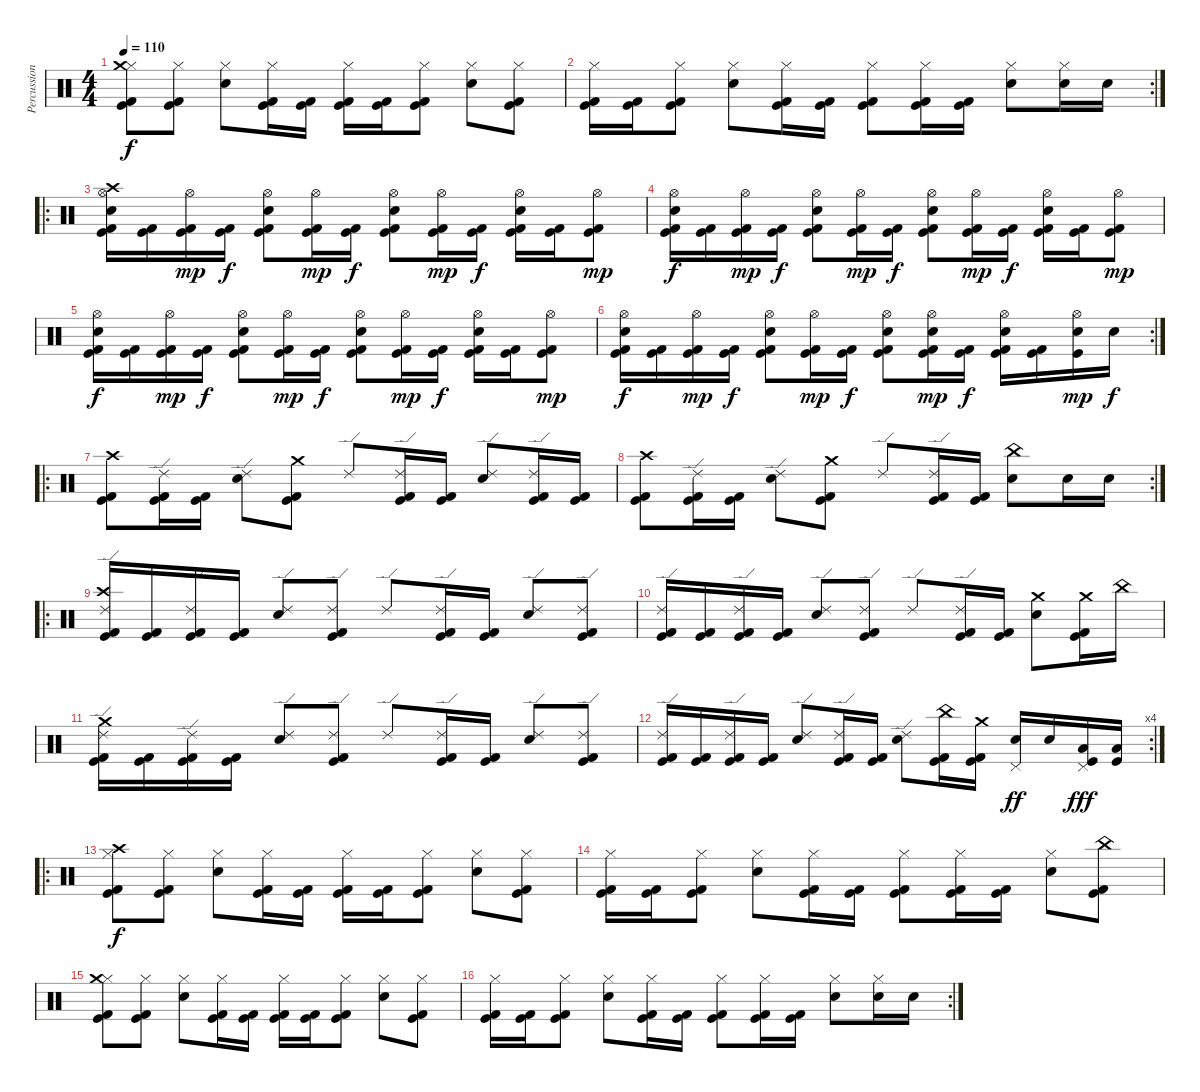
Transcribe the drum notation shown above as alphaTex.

\track ("Percussion" "Percussion") {instrument percussion}
\staff {score}
\articulation defaults
\ts (4 4)
\tempo 110
\clef neutral
\ks c
("Hi-Hat (closed)" "Crash medium (hit)" "Kick (hit) 2" "Kick (hit)").8{dy f} ("Hi-Hat (closed)" "Kick (hit) 2" "Kick (hit)").8 ("Hi-Hat (closed)" "Snare (hit) 2").8 ("Hi-Hat (closed)" "Kick (hit) 2" "Kick (hit)").16 ("Kick (hit) 2" "Kick (hit)").16 ("Hi-Hat (closed)" "Kick (hit) 2" "Kick (hit)").16 ("Kick (hit) 2" "Kick (hit)").16 ("Hi-Hat (closed)" "Kick (hit) 2" "Kick (hit)").8 ("Hi-Hat (closed)" "Snare (hit) 2").8 ("Hi-Hat (closed)" "Kick (hit) 2" "Kick (hit)").8 |
\rc 2
("Hi-Hat (closed)" "Kick (hit) 2" "Kick (hit)").16 ("Kick (hit) 2" "Kick (hit)").16 ("Hi-Hat (closed)" "Kick (hit) 2" "Kick (hit)").8 ("Hi-Hat (closed)" "Snare (hit) 2").8 ("Hi-Hat (closed)" "Kick (hit) 2" "Kick (hit)").16 ("Kick (hit) 2" "Kick (hit)").16 ("Hi-Hat (closed)" "Kick (hit) 2" "Kick (hit)").8 ("Hi-Hat (closed)" "Kick (hit) 2" "Kick (hit)").16 ("Kick (hit) 2" "Kick (hit)").16 ("Hi-Hat (closed)" "Snare (hit) 2").8 ("Hi-Hat (closed)" "Snare (hit) 2").16 "Snare (hit) 2".16 |
\ro
("Hi-Hat (open)" "Crash high (hit)" "Snare (hit) 2" "Kick (hit) 2" "Kick (hit)").16 ("Kick (hit) 2" "Kick (hit)").16 ("Hi-Hat (open)" "Kick (hit) 2" "Kick (hit)").16{dy mp} ("Kick (hit) 2" "Kick (hit)").16{dy f} ("Hi-Hat (open)" "Snare (hit) 2" "Kick (hit) 2" "Kick (hit)").8 ("Hi-Hat (open)" "Kick (hit) 2" "Kick (hit)").16{dy mp} ("Kick (hit) 2" "Kick (hit)").16{dy f} ("Hi-Hat (open)" "Snare (hit) 2" "Kick (hit) 2" "Kick (hit)").8 ("Hi-Hat (open)" "Kick (hit) 2" "Kick (hit)").16{dy mp} ("Kick (hit) 2" "Kick (hit)").16{dy f} ("Hi-Hat (open)" "Snare (hit) 2" "Kick (hit) 2" "Kick (hit)").16 ("Kick (hit) 2" "Kick (hit)").16 ("Hi-Hat (open)" "Kick (hit) 2" "Kick (hit)").8{dy mp} |
("Hi-Hat (open)" "Snare (hit) 2" "Kick (hit) 2" "Kick (hit)").16{dy f} ("Kick (hit) 2" "Kick (hit)").16 ("Hi-Hat (open)" "Kick (hit) 2" "Kick (hit)").16{dy mp} ("Kick (hit) 2" "Kick (hit)").16{dy f} ("Hi-Hat (open)" "Snare (hit) 2" "Kick (hit) 2" "Kick (hit)").8 ("Hi-Hat (open)" "Kick (hit) 2" "Kick (hit)").16{dy mp} ("Kick (hit) 2" "Kick (hit)").16{dy f} ("Hi-Hat (open)" "Snare (hit) 2" "Kick (hit) 2" "Kick (hit)").8 ("Hi-Hat (open)" "Kick (hit) 2" "Kick (hit)").16{dy mp} ("Kick (hit) 2" "Kick (hit)").16{dy f} ("Hi-Hat (open)" "Snare (hit) 2" "Kick (hit) 2" "Kick (hit)").16 ("Kick (hit) 2" "Kick (hit)").16 ("Hi-Hat (open)" "Kick (hit) 2" "Kick (hit)").8{dy mp} |
("Hi-Hat (open)" "Snare (hit) 2" "Kick (hit) 2" "Kick (hit)").16{dy f} ("Kick (hit) 2" "Kick (hit)").16 ("Hi-Hat (open)" "Kick (hit) 2" "Kick (hit)").16{dy mp} ("Kick (hit) 2" "Kick (hit)").16{dy f} ("Hi-Hat (open)" "Snare (hit) 2" "Kick (hit) 2" "Kick (hit)").8 ("Hi-Hat (open)" "Kick (hit) 2" "Kick (hit)").16{dy mp} ("Kick (hit) 2" "Kick (hit)").16{dy f} ("Hi-Hat (open)" "Snare (hit) 2" "Kick (hit) 2" "Kick (hit)").8 ("Hi-Hat (open)" "Kick (hit) 2" "Kick (hit)").16{dy mp} ("Kick (hit) 2" "Kick (hit)").16{dy f} ("Hi-Hat (open)" "Snare (hit) 2" "Kick (hit) 2" "Kick (hit)").16 ("Kick (hit) 2" "Kick (hit)").16 ("Hi-Hat (open)" "Kick (hit) 2" "Kick (hit)").8{dy mp} |
\rc 2
("Hi-Hat (open)" "Snare (hit) 2" "Kick (hit) 2" "Kick (hit)").16{dy f} ("Kick (hit) 2" "Kick (hit)").16 ("Hi-Hat (open)" "Kick (hit) 2" "Kick (hit)").16{dy mp} ("Kick (hit) 2" "Kick (hit)").16{dy f} ("Hi-Hat (open)" "Snare (hit) 2" "Kick (hit) 2" "Kick (hit)").8 ("Hi-Hat (open)" "Kick (hit) 2" "Kick (hit)").16{dy mp} ("Kick (hit) 2" "Kick (hit)").16{dy f} ("Hi-Hat (open)" "Snare (hit) 2" "Kick (hit) 2" "Kick (hit)").8 ("Hi-Hat (open)" "Snare (hit) 2" "Kick (hit) 2" "Kick (hit)").16{dy mp} ("Kick (hit) 2" "Kick (hit)").16{dy f} ("Hi-Hat (open)" "Snare (hit) 2" "Kick (hit) 2" "Kick (hit)").16 ("Kick (hit) 2" "Kick (hit)").16 ("Hi-Hat (open)" "Snare (hit) 2" "Kick (hit)").16{dy mp} "Snare (hit) 2".16{dy f} |
\ro
("Crash high (hit)" "Kick (hit) 2" "Kick (hit)").8 ("Ride (edge) 2" "Kick (hit) 2" "Kick (hit)").16 ("Kick (hit) 2" "Kick (hit)").16 ("Ride (edge) 2" "Snare (hit) 2").8 ("Crash medium (hit)" "Kick (hit) 2" "Kick (hit)").8 "Ride (edge) 2".8 ("Ride (edge) 2" "Kick (hit) 2" "Kick (hit)").16 ("Kick (hit) 2" "Kick (hit)").16 ("Ride (edge) 2" "Snare (hit) 2").8 ("Ride (edge) 2" "Kick (hit) 2" "Kick (hit)").16 ("Kick (hit) 2" "Kick (hit)").16 |
\rc 2
("Crash high (hit)" "Kick (hit) 2" "Kick (hit)").8 ("Ride (edge) 2" "Kick (hit) 2" "Kick (hit)").16 ("Kick (hit) 2" "Kick (hit)").16 ("Ride (edge) 2" "Snare (hit) 2").8 ("Crash medium (hit)" "Kick (hit) 2" "Kick (hit)").8 "Ride (edge) 2".8 ("Ride (edge) 2" "Kick (hit) 2" "Kick (hit)").16 ("Kick (hit) 2" "Kick (hit)").16 ("China (hit)" "Snare (hit) 2").8 "Snare (hit) 2".16 "Snare (hit) 2".16 |
\ro
("Ride (edge) 2" "Crash high (hit)" "Kick (hit) 2" "Kick (hit)").16 ("Kick (hit) 2" "Kick (hit)").16 ("Ride (edge) 2" "Kick (hit) 2" "Kick (hit)").16 ("Kick (hit) 2" "Kick (hit)").16 ("Ride (edge) 2" "Snare (hit) 2").8 ("Ride (edge) 2" "Kick (hit) 2" "Kick (hit)").8 "Ride (edge) 2".8 ("Ride (edge) 2" "Kick (hit) 2" "Kick (hit)").16 ("Kick (hit) 2" "Kick (hit)").16 ("Ride (edge) 2" "Snare (hit) 2").8 ("Ride (edge) 2" "Kick (hit) 2" "Kick (hit)").8 |
("Ride (edge) 2" "Kick (hit) 2" "Kick (hit)").16 ("Kick (hit) 2" "Kick (hit)").16 ("Ride (edge) 2" "Kick (hit) 2" "Kick (hit)").16 ("Kick (hit) 2" "Kick (hit)").16 ("Ride (edge) 2" "Snare (hit) 2").8 ("Ride (edge) 2" "Kick (hit) 2" "Kick (hit)").8 "Ride (edge) 2".8 ("Ride (edge) 2" "Kick (hit) 2" "Kick (hit)").16 ("Kick (hit) 2" "Kick (hit)").16 ("Crash medium (hit)" "Snare (hit) 2").8 ("Crash medium (hit)" "Kick (hit) 2" "Kick (hit)").16 "China (hit)".16 |
("Ride (edge) 2" "Crash medium (hit)" "Kick (hit) 2" "Kick (hit)").16 ("Kick (hit) 2" "Kick (hit)").16 ("Ride (edge) 2" "Kick (hit) 2" "Kick (hit)").16 ("Kick (hit) 2" "Kick (hit)").16 ("Ride (edge) 2" "Snare (hit) 2").8 ("Ride (edge) 2" "Kick (hit) 2" "Kick (hit)").8 "Ride (edge) 2".8 ("Ride (edge) 2" "Kick (hit) 2" "Kick (hit)").16 ("Kick (hit) 2" "Kick (hit)").16 ("Ride (edge) 2" "Snare (hit) 2").8 ("Ride (edge) 2" "Kick (hit) 2" "Kick (hit)").8 |
\rc 4
("Ride (edge) 2" "Kick (hit) 2" "Kick (hit)").16 ("Kick (hit) 2" "Kick (hit)").16 ("Ride (edge) 2" "Kick (hit) 2" "Kick (hit)").16 ("Kick (hit) 2" "Kick (hit)").16 ("Ride (edge) 2" "Snare (hit) 2").8 ("Ride (edge) 2" "Kick (hit) 2" "Kick (hit)").16 ("Kick (hit) 2" "Kick (hit)").16 ("Ride (edge) 2" "Snare (hit) 2").8 ("China (hit)" "Kick (hit) 2" "Kick (hit)").16 ("Crash medium (hit)" "Kick (hit) 2" "Kick (hit)").16 ("Pedal Hi-Hat (hit)" "Snare (hit) 2").16{dy ff} "Snare (hit) 2".16 ("Pedal Hi-Hat (hit)" "Low Tom (hit)" "Kick (hit)").16{dy fff} ("Low Tom (hit)" "Kick (hit)").16 |
\ro
("Hi-Hat (closed)" "Crash high (hit)" "Kick (hit) 2" "Kick (hit)").8{dy f} ("Hi-Hat (closed)" "Kick (hit) 2" "Kick (hit)").8 ("Hi-Hat (closed)" "Snare (hit) 2").8 ("Hi-Hat (closed)" "Kick (hit) 2" "Kick (hit)").16 ("Kick (hit) 2" "Kick (hit)").16 ("Hi-Hat (closed)" "Kick (hit) 2" "Kick (hit)").16 ("Kick (hit) 2" "Kick (hit)").16 ("Hi-Hat (closed)" "Kick (hit) 2" "Kick (hit)").8 ("Hi-Hat (closed)" "Snare (hit) 2").8 ("Hi-Hat (closed)" "Kick (hit) 2" "Kick (hit)").8 |
("Hi-Hat (closed)" "Kick (hit) 2" "Kick (hit)").16 ("Kick (hit) 2" "Kick (hit)").16 ("Hi-Hat (closed)" "Kick (hit) 2" "Kick (hit)").8 ("Hi-Hat (closed)" "Snare (hit) 2").8 ("Hi-Hat (closed)" "Kick (hit) 2" "Kick (hit)").16 ("Kick (hit) 2" "Kick (hit)").16 ("Hi-Hat (closed)" "Kick (hit) 2" "Kick (hit)").8 ("Hi-Hat (closed)" "Kick (hit) 2" "Kick (hit)").16 ("Kick (hit) 2" "Kick (hit)").16 ("Hi-Hat (closed)" "Snare (hit) 2").8 ("China (hit)" "Kick (hit) 2" "Kick (hit)").8 |
("Hi-Hat (closed)" "Crash medium (hit)" "Kick (hit) 2" "Kick (hit)").8 ("Hi-Hat (closed)" "Kick (hit) 2" "Kick (hit)").8 ("Hi-Hat (closed)" "Snare (hit) 2").8 ("Hi-Hat (closed)" "Kick (hit) 2" "Kick (hit)").16 ("Kick (hit) 2" "Kick (hit)").16 ("Hi-Hat (closed)" "Kick (hit) 2" "Kick (hit)").16 ("Kick (hit) 2" "Kick (hit)").16 ("Hi-Hat (closed)" "Kick (hit) 2" "Kick (hit)").8 ("Hi-Hat (closed)" "Snare (hit) 2").8 ("Hi-Hat (closed)" "Kick (hit) 2" "Kick (hit)").8 |
\rc 2
("Hi-Hat (closed)" "Kick (hit) 2" "Kick (hit)").16 ("Kick (hit) 2" "Kick (hit)").16 ("Hi-Hat (closed)" "Kick (hit) 2" "Kick (hit)").8 ("Hi-Hat (closed)" "Snare (hit) 2").8 ("Hi-Hat (closed)" "Kick (hit) 2" "Kick (hit)").16 ("Kick (hit) 2" "Kick (hit)").16 ("Hi-Hat (closed)" "Kick (hit) 2" "Kick (hit)").8 ("Hi-Hat (closed)" "Kick (hit) 2" "Kick (hit)").16 ("Kick (hit) 2" "Kick (hit)").16 ("Hi-Hat (closed)" "Snare (hit) 2").8 ("Hi-Hat (closed)" "Snare (hit) 2").16 "Snare (hit) 2".16
